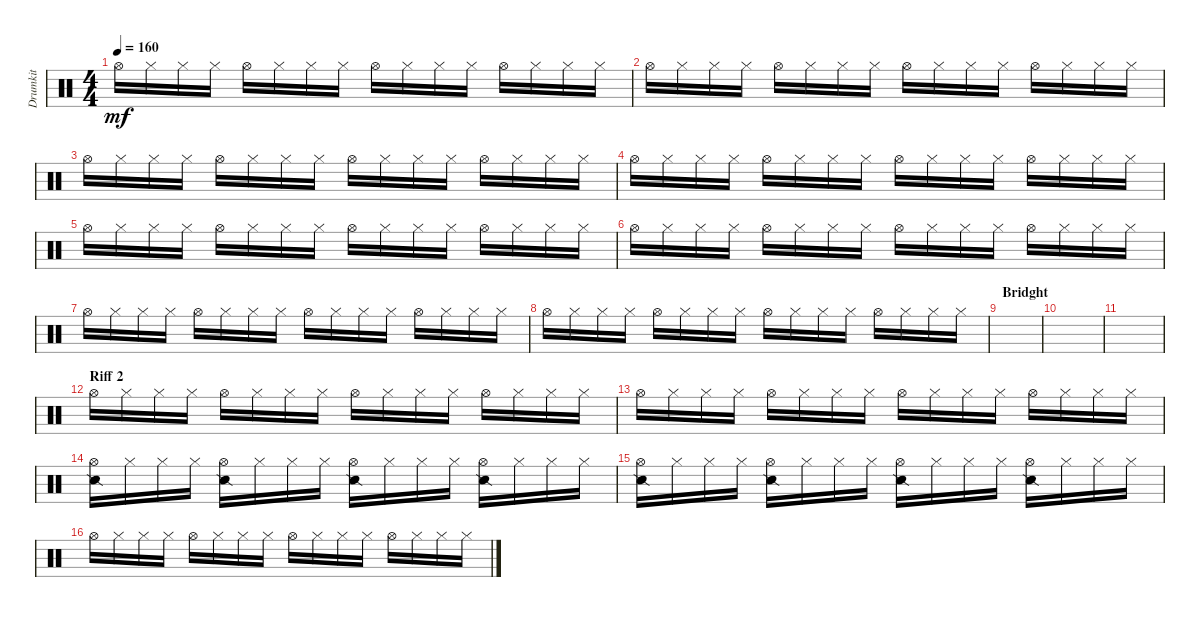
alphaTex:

\track ("Drumkit" "Drumkit") {instrument percussion}
\staff {score}
\articulation defaults
\ts (4 4)
\tempo 160
\clef neutral
\ks c "Hi-Hat (open)".16{dy mf} "Hi-Hat (closed)".16 "Hi-Hat (closed)".16 "Hi-Hat (closed)".16 "Hi-Hat (open)".16 "Hi-Hat (closed)".16 "Hi-Hat (closed)".16 "Hi-Hat (closed)".16 "Hi-Hat (open)".16 "Hi-Hat (closed)".16 "Hi-Hat (closed)".16 "Hi-Hat (closed)".16 "Hi-Hat (open)".16 "Hi-Hat (closed)".16 "Hi-Hat (closed)".16 "Hi-Hat (closed)".16
|
"Hi-Hat (open)".16 "Hi-Hat (closed)".16 "Hi-Hat (closed)".16 "Hi-Hat (closed)".16 "Hi-Hat (open)".16 "Hi-Hat (closed)".16 "Hi-Hat (closed)".16 "Hi-Hat (closed)".16 "Hi-Hat (open)".16 "Hi-Hat (closed)".16 "Hi-Hat (closed)".16 "Hi-Hat (closed)".16 "Hi-Hat (open)".16 "Hi-Hat (closed)".16 "Hi-Hat (closed)".16 "Hi-Hat (closed)".16 |
"Hi-Hat (open)".16 "Hi-Hat (closed)".16 "Hi-Hat (closed)".16 "Hi-Hat (closed)".16 "Hi-Hat (open)".16 "Hi-Hat (closed)".16 "Hi-Hat (closed)".16 "Hi-Hat (closed)".16 "Hi-Hat (open)".16 "Hi-Hat (closed)".16 "Hi-Hat (closed)".16 "Hi-Hat (closed)".16 "Hi-Hat (open)".16 "Hi-Hat (closed)".16 "Hi-Hat (closed)".16 "Hi-Hat (closed)".16 |
"Hi-Hat (open)".16 "Hi-Hat (closed)".16 "Hi-Hat (closed)".16 "Hi-Hat (closed)".16 "Hi-Hat (open)".16 "Hi-Hat (closed)".16 "Hi-Hat (closed)".16 "Hi-Hat (closed)".16 "Hi-Hat (open)".16 "Hi-Hat (closed)".16 "Hi-Hat (closed)".16 "Hi-Hat (closed)".16 "Hi-Hat (open)".16 "Hi-Hat (closed)".16 "Hi-Hat (closed)".16 "Hi-Hat (closed)".16 |
"Hi-Hat (open)".16 "Hi-Hat (closed)".16 "Hi-Hat (closed)".16 "Hi-Hat (closed)".16 "Hi-Hat (open)".16 "Hi-Hat (closed)".16 "Hi-Hat (closed)".16 "Hi-Hat (closed)".16 "Hi-Hat (open)".16 "Hi-Hat (closed)".16 "Hi-Hat (closed)".16 "Hi-Hat (closed)".16 "Hi-Hat (open)".16 "Hi-Hat (closed)".16 "Hi-Hat (closed)".16 "Hi-Hat (closed)".16 |
"Hi-Hat (open)".16 "Hi-Hat (closed)".16 "Hi-Hat (closed)".16 "Hi-Hat (closed)".16 "Hi-Hat (open)".16 "Hi-Hat (closed)".16 "Hi-Hat (closed)".16 "Hi-Hat (closed)".16 "Hi-Hat (open)".16 "Hi-Hat (closed)".16 "Hi-Hat (closed)".16 "Hi-Hat (closed)".16 "Hi-Hat (open)".16 "Hi-Hat (closed)".16 "Hi-Hat (closed)".16 "Hi-Hat (closed)".16 |
"Hi-Hat (open)".16 "Hi-Hat (closed)".16 "Hi-Hat (closed)".16 "Hi-Hat (closed)".16 "Hi-Hat (open)".16 "Hi-Hat (closed)".16 "Hi-Hat (closed)".16 "Hi-Hat (closed)".16 "Hi-Hat (open)".16 "Hi-Hat (closed)".16 "Hi-Hat (closed)".16 "Hi-Hat (closed)".16 "Hi-Hat (open)".16 "Hi-Hat (closed)".16 "Hi-Hat (closed)".16 "Hi-Hat (closed)".16 |
"Hi-Hat (open)".16 "Hi-Hat (closed)".16 "Hi-Hat (closed)".16 "Hi-Hat (closed)".16 "Hi-Hat (open)".16 "Hi-Hat (closed)".16 "Hi-Hat (closed)".16 "Hi-Hat (closed)".16 "Hi-Hat (open)".16 "Hi-Hat (closed)".16 "Hi-Hat (closed)".16 "Hi-Hat (closed)".16 "Hi-Hat (open)".16 "Hi-Hat (closed)".16 "Hi-Hat (closed)".16 "Hi-Hat (closed)".16 |
\section ("" "Bridght")
|
|
|
\section ("" "Riff 2")
"Hi-Hat (open)".16 "Hi-Hat (closed)".16 "Hi-Hat (closed)".16 "Hi-Hat (closed)".16 "Hi-Hat (open)".16 "Hi-Hat (closed)".16 "Hi-Hat (closed)".16 "Hi-Hat (closed)".16 "Hi-Hat (open)".16 "Hi-Hat (closed)".16 "Hi-Hat (closed)".16 "Hi-Hat (closed)".16 "Hi-Hat (open)".16 "Hi-Hat (closed)".16 "Hi-Hat (closed)".16 "Hi-Hat (closed)".16 |
"Hi-Hat (open)".16 "Hi-Hat (closed)".16 "Hi-Hat (closed)".16 "Hi-Hat (closed)".16 "Hi-Hat (open)".16 "Hi-Hat (closed)".16 "Hi-Hat (closed)".16 "Hi-Hat (closed)".16 "Hi-Hat (open)".16 "Hi-Hat (closed)".16 "Hi-Hat (closed)".16 "Hi-Hat (closed)".16 "Hi-Hat (open)".16 "Hi-Hat (closed)".16 "Hi-Hat (closed)".16 "Hi-Hat (closed)".16 |
("Hi-Hat (open)" "Snare (side stick) 2").16 "Hi-Hat (closed)".16 "Hi-Hat (closed)".16 "Hi-Hat (closed)".16 ("Hi-Hat (open)" "Snare (side stick) 2").16 "Hi-Hat (closed)".16 "Hi-Hat (closed)".16 "Hi-Hat (closed)".16 ("Hi-Hat (open)" "Snare (side stick) 2").16 "Hi-Hat (closed)".16 "Hi-Hat (closed)".16 "Hi-Hat (closed)".16 ("Hi-Hat (open)" "Snare (side stick) 2").16 "Hi-Hat (closed)".16 "Hi-Hat (closed)".16 "Hi-Hat (closed)".16 |
("Hi-Hat (open)" "Snare (side stick) 2").16 "Hi-Hat (closed)".16 "Hi-Hat (closed)".16 "Hi-Hat (closed)".16 ("Hi-Hat (open)" "Snare (side stick) 2").16 "Hi-Hat (closed)".16 "Hi-Hat (closed)".16 "Hi-Hat (closed)".16 ("Hi-Hat (open)" "Snare (side stick) 2").16 "Hi-Hat (closed)".16 "Hi-Hat (closed)".16 "Hi-Hat (closed)".16 ("Hi-Hat (open)" "Snare (side stick) 2").16 "Hi-Hat (closed)".16 "Hi-Hat (closed)".16 "Hi-Hat (closed)".16 |
"Hi-Hat (open)".16 "Hi-Hat (closed)".16 "Hi-Hat (closed)".16 "Hi-Hat (closed)".16 "Hi-Hat (open)".16 "Hi-Hat (closed)".16 "Hi-Hat (closed)".16 "Hi-Hat (closed)".16 "Hi-Hat (open)".16 "Hi-Hat (closed)".16 "Hi-Hat (closed)".16 "Hi-Hat (closed)".16 "Hi-Hat (open)".16 "Hi-Hat (closed)".16 "Hi-Hat (closed)".16 "Hi-Hat (closed)".16
